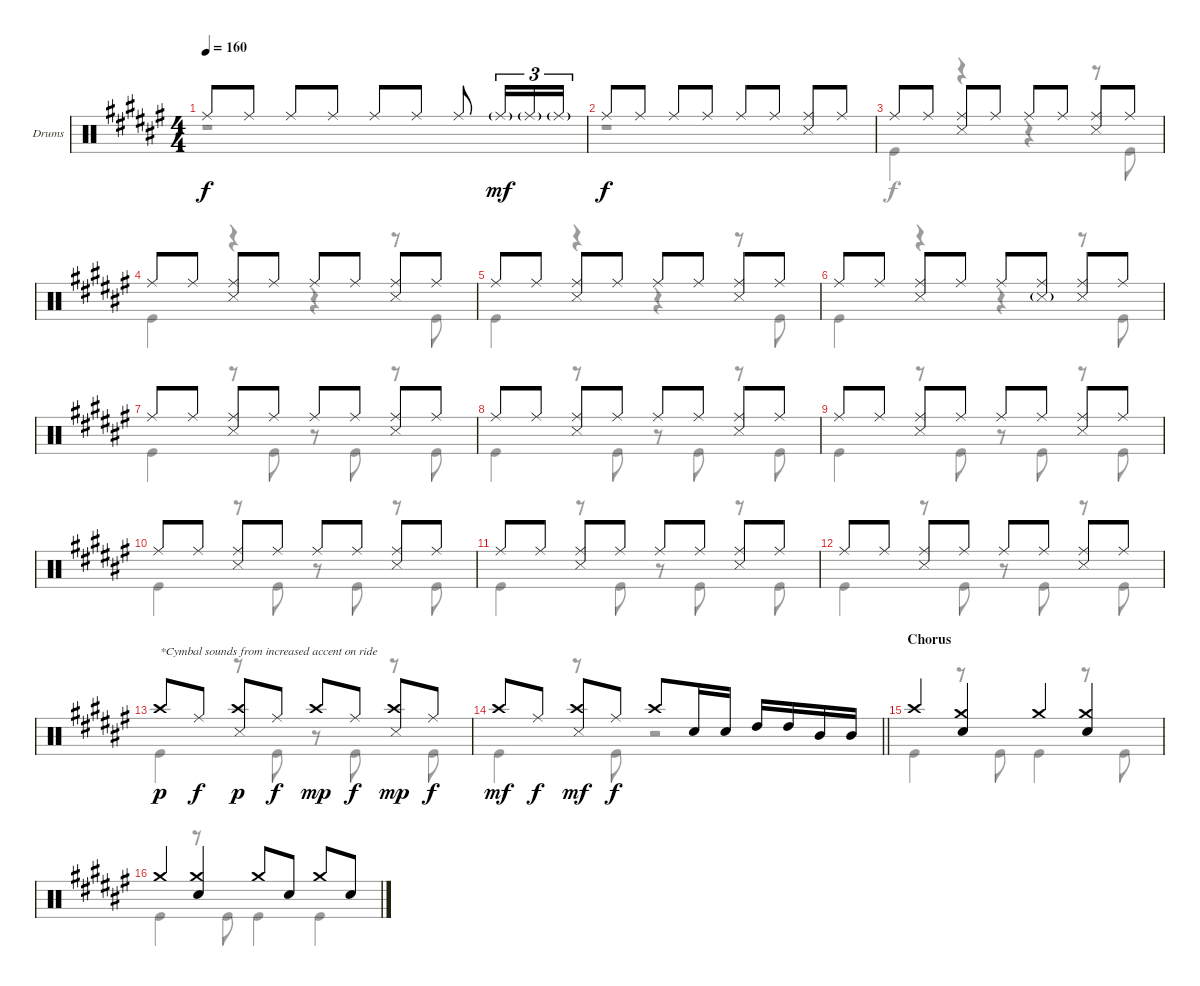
\bracketExtendMode groupsimilarinstruments
\firstSystemTrackNameOrientation horizontal
\otherSystemsTrackNameOrientation horizontal
\track ("Drumkit" "Drums") {instrument percussion}
\staff {score}
\articulation defaults
\voice
\ts (4 4)
\tempo 160
\clef neutral
\ks d#minor "Ride (middle)".8{dy f} "Ride (middle)".8 "Ride (middle)".8 "Ride (middle)".8 "Ride (middle)".8 "Ride (middle)".8 "Ride (middle)".8 "Ride (middle)"{g}.16{tu (3 2) dy mf} "Ride (middle)"{g}.16{tu (3 2)} "Ride (middle)"{g}.16{tu (3 2)}
|
"Ride (middle)".8{dy f} "Ride (middle)".8 "Ride (middle)".8 "Ride (middle)".8 "Ride (middle)".8 "Ride (middle)".8 ("Ride (middle)" "Snare (side stick) 3").8 "Ride (middle)".8 |
"Ride (middle)".8 "Ride (middle)".8 ("Ride (middle)" "Snare (side stick) 3").8 "Ride (middle)".8 "Ride (middle)".8 "Ride (middle)".8 ("Ride (middle)" "Snare (side stick) 3").8 "Ride (middle)".8 |
"Ride (middle)".8 "Ride (middle)".8 ("Ride (middle)" "Snare (side stick) 3").8 "Ride (middle)".8 "Ride (middle)".8 "Ride (middle)".8 ("Ride (middle)" "Snare (side stick) 3").8 "Ride (middle)".8 |
"Ride (middle)".8 "Ride (middle)".8 ("Ride (middle)" "Snare (side stick) 3").8 "Ride (middle)".8 "Ride (middle)".8 "Ride (middle)".8 ("Ride (middle)" "Snare (side stick) 3").8 "Ride (middle)".8 |
"Ride (middle)".8 "Ride (middle)".8 ("Ride (middle)" "Snare (side stick) 3").8 "Ride (middle)".8 "Ride (middle)".8 ("Ride (middle)" "Snare (side stick) 3"{g}).8 ("Ride (middle)" "Snare (side stick) 3").8 "Ride (middle)".8 |
"Ride (middle)".8 "Ride (middle)".8 ("Ride (middle)" "Snare (side stick) 3").8 "Ride (middle)".8 "Ride (middle)".8 "Ride (middle)".8 ("Ride (middle)" "Snare (side stick) 3").8 "Ride (middle)".8 |
"Ride (middle)".8 "Ride (middle)".8 ("Ride (middle)" "Snare (side stick) 3").8 "Ride (middle)".8 "Ride (middle)".8 "Ride (middle)".8 ("Ride (middle)" "Snare (side stick) 3").8 "Ride (middle)".8 |
"Ride (middle)".8 "Ride (middle)".8 ("Ride (middle)" "Snare (side stick) 3").8 "Ride (middle)".8 "Ride (middle)".8 "Ride (middle)".8 ("Ride (middle)" "Snare (side stick) 3").8 "Ride (middle)".8 |
"Ride (middle)".8 "Ride (middle)".8 ("Ride (middle)" "Snare (side stick) 3").8 "Ride (middle)".8 "Ride (middle)".8 "Ride (middle)".8 ("Ride (middle)" "Snare (side stick) 3").8 "Ride (middle)".8 |
"Ride (middle)".8 "Ride (middle)".8 ("Ride (middle)" "Snare (side stick) 3").8 "Ride (middle)".8 "Ride (middle)".8 "Ride (middle)".8 ("Ride (middle)" "Snare (side stick) 3").8 "Ride (middle)".8 |
"Ride (middle)".8 "Ride (middle)".8 ("Ride (middle)" "Snare (side stick) 3").8 "Ride (middle)".8 "Ride (middle)".8 "Ride (middle)".8 ("Ride (middle)" "Snare (side stick) 3").8 "Ride (middle)".8 |
"Crash high (hit)".8{txt "*Cymbal sounds from increased accent on ride" dy p} "Ride (middle)".8{dy f} ("Crash high (hit)" "Snare (side stick) 3").8{dy p} "Ride (middle)".8{dy f} "Crash high (hit)".8{dy mp} "Ride (middle)".8{dy f} ("Crash high (hit)" "Snare (side stick) 3").8{dy mp} "Ride (middle)".8{dy f} |
\barLineRight lightlight "Crash high (hit)".8{dy mf} "Ride (middle)".8{dy f}
("Crash high (hit)" "Snare (side stick) 3").8{dy mf} "Ride (middle)".8{dy f} "Crash high (hit)".8 "Snare (hit) 2".16 "Snare (hit) 2".16 "High Tom (hit)".16 "High Tom (hit)".16 "Mid Tom (hit)".16 "Mid Tom (hit)".16 |
\section ("" "Chorus")
"Crash high (hit)".4 ("Crash medium (hit)" "Snare (hit) 2").4 "Crash medium (hit)".4 ("Crash medium (hit)" "Snare (hit) 2").4 |
"Crash medium (hit)".4 ("Crash medium (hit)" "Snare (hit) 2").4 "Crash medium (hit)".8 "Snare (hit) 2".8 "Crash medium (hit)".8 "Snare (hit) 2".8
\voice
\clef neutral
\ottava regular
\simile none
\ks d#minor
r.1{dy f} |
r.1 |
"Kick (hit)".4 r.4 r.4 r.8 "Kick (hit)".8 |
"Kick (hit)".4 r.4 r.4 r.8 "Kick (hit)".8 |
"Kick (hit)".4 r.4 r.4 r.8 "Kick (hit)".8 |
"Kick (hit)".4 r.4 r.4 r.8 "Kick (hit)".8 |
"Kick (hit)".4 r.8 "Kick (hit)".8 r.8 "Kick (hit)".8 r.8 "Kick (hit)".8 |
"Kick (hit)".4 r.8 "Kick (hit)".8 r.8 "Kick (hit)".8 r.8 "Kick (hit)".8 |
"Kick (hit)".4 r.8 "Kick (hit)".8 r.8 "Kick (hit)".8 r.8 "Kick (hit)".8 |
"Kick (hit)".4 r.8 "Kick (hit)".8 r.8 "Kick (hit)".8 r.8 "Kick (hit)".8 |
"Kick (hit)".4 r.8 "Kick (hit)".8 r.8 "Kick (hit)".8 r.8 "Kick (hit)".8 |
"Kick (hit)".4 r.8 "Kick (hit)".8 r.8 "Kick (hit)".8 r.8 "Kick (hit)".8 |
"Kick (hit)".4 r.8 "Kick (hit)".8 r.8 "Kick (hit)".8 r.8 "Kick (hit)".8 |
\barLineRight lightlight "Kick (hit)".4
r.8 "Kick (hit)".8 r.2 |
"Kick (hit)".4 r.8 "Kick (hit)".8 "Kick (hit)".4 r.8 "Kick (hit)".8 |
"Kick (hit)".4 r.8 "Kick (hit)".8 "Kick (hit)".4 "Kick (hit)".4
